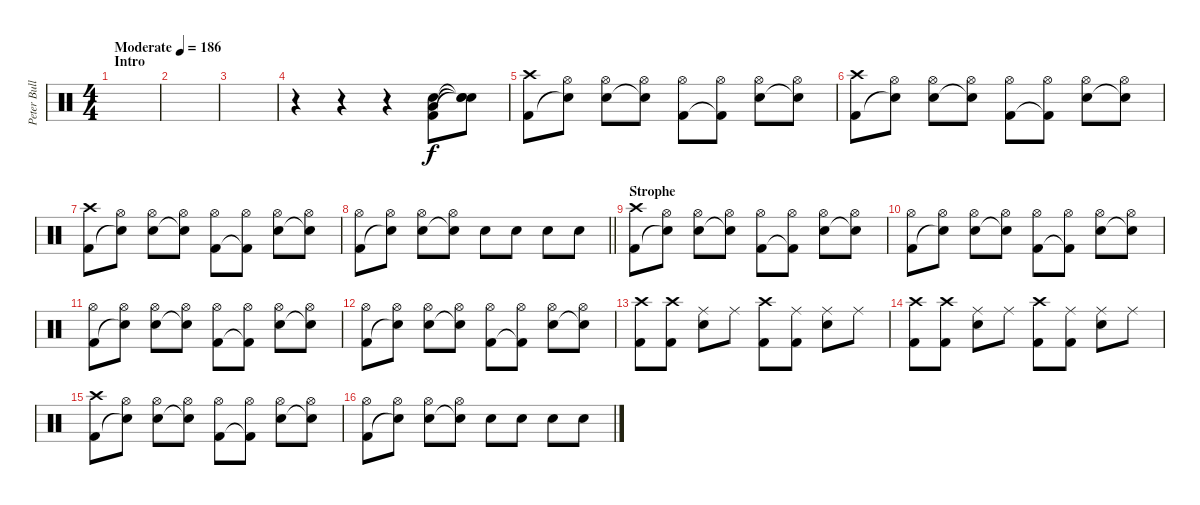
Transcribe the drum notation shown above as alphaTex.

\track ("Peter Bullrich" "Peter Bull") {instrument percussion}
\staff {score}
\articulation defaults
\ts (4 4)
\section ("" "Intro")
\tempo (186 "Moderate")
\clef neutral
\ks c
|
|
|
r.4 r.4 r.4 ("Low Floor Tom (hit)" "Kick (hit) 2" "Electric Snare (hit)").8 ("Snare (hit)"{t} "Snare (hit)"{t} "Snare (hit)"{t}).8 |
("Crash high (hit)" "Kick (hit) 2").8 ("Hi-Hat (open)" "Electric Snare (hit)"{t}).8 ("Hi-Hat (open)" "Electric Snare (hit)").8 ("Hi-Hat (open)" "Snare (hit)"{t}).8 ("Hi-Hat (open)" "Kick (hit) 2").8 ("Hi-Hat (open)" "Kick (hit) 2"{t}).8 ("Hi-Hat (open)" "Electric Snare (hit)").8 ("Hi-Hat (open)" "Electric Snare (hit)"{t}).8 |
("Crash high (hit)" "Kick (hit) 2").8 ("Hi-Hat (open)" "Electric Snare (hit)"{t}).8 ("Hi-Hat (open)" "Electric Snare (hit)").8 ("Hi-Hat (open)" "Snare (hit)"{t}).8 ("Hi-Hat (open)" "Kick (hit) 2").8 ("Hi-Hat (open)" "Kick (hit) 2"{t}).8 ("Hi-Hat (open)" "Electric Snare (hit)").8 ("Hi-Hat (open)" "Electric Snare (hit)"{t}).8 |
("Crash high (hit)" "Kick (hit) 2").8 ("Hi-Hat (open)" "Electric Snare (hit)"{t}).8 ("Hi-Hat (open)" "Electric Snare (hit)").8 ("Hi-Hat (open)" "Snare (hit)"{t}).8 ("Hi-Hat (open)" "Kick (hit) 2").8 ("Hi-Hat (open)" "Kick (hit) 2"{t}).8 ("Hi-Hat (open)" "Electric Snare (hit)").8 ("Hi-Hat (open)" "Electric Snare (hit)"{t}).8 |
\barLineRight lightlight
("Hi-Hat (open)" "Kick (hit) 2").8 ("Hi-Hat (open)" "Electric Snare (hit)"{t}).8 ("Hi-Hat (open)" "Electric Snare (hit)").8 ("Hi-Hat (open)" "Snare (hit)"{t}).8 "Electric Snare (hit)".8 "Electric Snare (hit)".8 "Electric Snare (hit)".8 "Electric Snare (hit)".8 |
\section ("" "Strophe")
("Crash high (hit)" "Kick (hit) 2").8 ("Hi-Hat (open)" "Electric Snare (hit)"{t}).8 ("Hi-Hat (open)" "Electric Snare (hit)").8 ("Hi-Hat (open)" "Snare (hit)"{t}).8 ("Hi-Hat (open)" "Kick (hit) 2").8 ("Hi-Hat (open)" "Kick (hit) 2"{t}).8 ("Hi-Hat (open)" "Electric Snare (hit)").8 ("Hi-Hat (open)" "Electric Snare (hit)"{t}).8 |
("Hi-Hat (open)" "Kick (hit) 2").8 ("Hi-Hat (open)" "Electric Snare (hit)"{t}).8 ("Hi-Hat (open)" "Electric Snare (hit)").8 ("Hi-Hat (open)" "Snare (hit)"{t}).8 ("Hi-Hat (open)" "Kick (hit) 2").8 ("Hi-Hat (open)" "Kick (hit) 2"{t}).8 ("Hi-Hat (open)" "Electric Snare (hit)").8 ("Hi-Hat (open)" "Electric Snare (hit)"{t}).8 |
("Hi-Hat (open)" "Kick (hit) 2").8 ("Hi-Hat (open)" "Electric Snare (hit)"{t}).8 ("Hi-Hat (open)" "Electric Snare (hit)").8 ("Hi-Hat (open)" "Snare (hit)"{t}).8 ("Hi-Hat (open)" "Kick (hit) 2").8 ("Hi-Hat (open)" "Kick (hit) 2"{t}).8 ("Hi-Hat (open)" "Electric Snare (hit)").8 ("Hi-Hat (open)" "Electric Snare (hit)"{t}).8 |
("Hi-Hat (open)" "Kick (hit) 2").8 ("Hi-Hat (open)" "Electric Snare (hit)"{t}).8 ("Hi-Hat (open)" "Electric Snare (hit)").8 ("Hi-Hat (open)" "Snare (hit)"{t}).8 ("Hi-Hat (open)" "Kick (hit) 2").8 ("Hi-Hat (open)" "Kick (hit) 2"{t}).8 ("Hi-Hat (open)" "Electric Snare (hit)").8 ("Hi-Hat (open)" "Electric Snare (hit)"{t}).8 |
("Crash high (hit)" "Kick (hit) 2").8 ("Crash high (hit)" "Kick (hit) 2").8 ("Ride (middle)" "Electric Snare (hit)").8 "Ride (middle)".8 ("Crash high (hit)" "Kick (hit) 2").8 ("Ride (middle)" "Kick (hit) 2").8 ("Ride (middle)" "Electric Snare (hit)").8 "Ride (middle)".8 |
("Crash high (hit)" "Kick (hit) 2").8 ("Crash high (hit)" "Kick (hit) 2").8 ("Ride (middle)" "Electric Snare (hit)").8 "Ride (middle)".8 ("Crash high (hit)" "Kick (hit) 2").8 ("Ride (middle)" "Kick (hit) 2").8 ("Ride (middle)" "Electric Snare (hit)").8 "Ride (middle)".8 |
("Crash high (hit)" "Kick (hit) 2").8 ("Hi-Hat (open)" "Electric Snare (hit)"{t}).8 ("Hi-Hat (open)" "Electric Snare (hit)").8 ("Hi-Hat (open)" "Snare (hit)"{t}).8 ("Hi-Hat (open)" "Kick (hit) 2").8 ("Hi-Hat (open)" "Kick (hit) 2"{t}).8 ("Hi-Hat (open)" "Electric Snare (hit)").8 ("Hi-Hat (open)" "Electric Snare (hit)"{t}).8 |
("Hi-Hat (open)" "Kick (hit) 2").8 ("Hi-Hat (open)" "Electric Snare (hit)"{t}).8 ("Hi-Hat (open)" "Electric Snare (hit)").8 ("Hi-Hat (open)" "Snare (hit)"{t}).8 "Electric Snare (hit)".8 "Electric Snare (hit)".8 "Electric Snare (hit)".8 "Electric Snare (hit)".8
